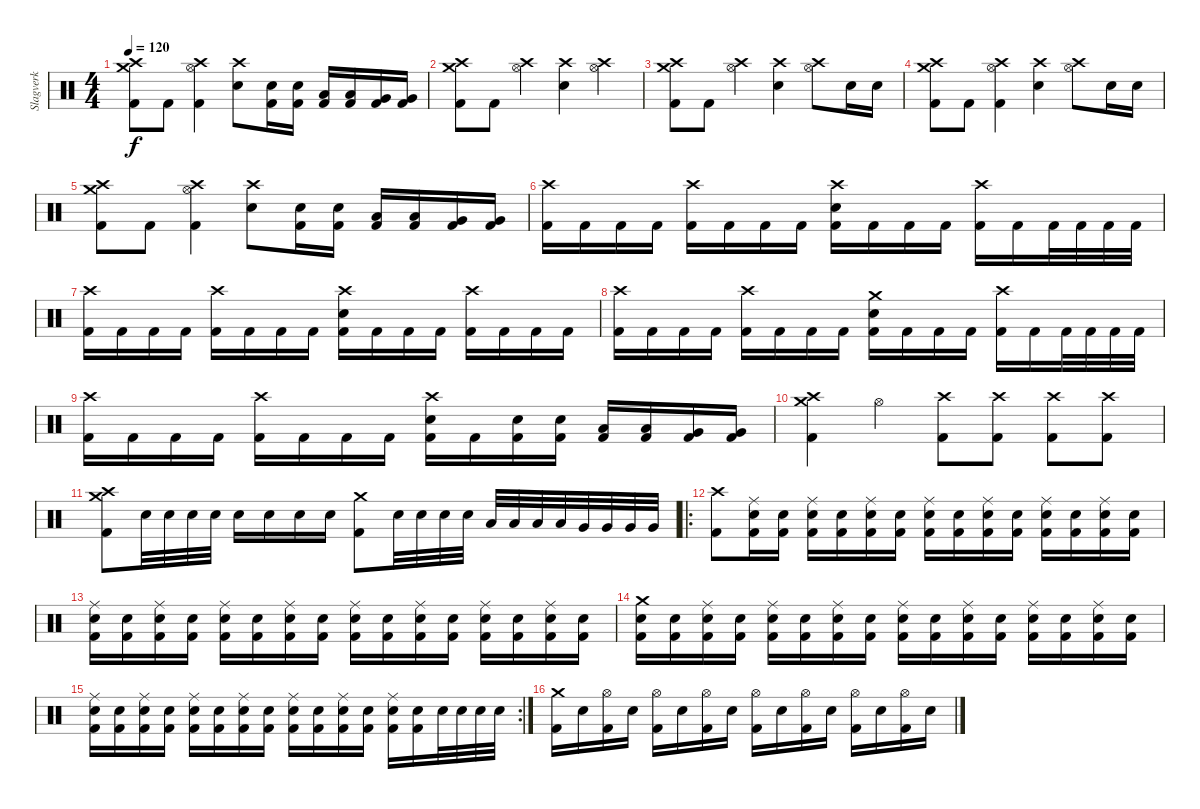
\track ("Slagverk" "Slagverk") {instrument percussion}
\staff {score}
\articulation defaults
\ts (4 4)
\tempo 120
\clef neutral
\ks c
("Crash high (hit)" "Crash medium (hit)" "Kick (hit) 2").8{dy f} "Kick (hit) 2".8 ("Crash high (hit)" "Hi-Hat (open)" "Kick (hit) 2").4 ("Crash high (hit)" "Electric Snare (hit)").8 ("Electric Snare (hit)" "Kick (hit) 2").16 ("Electric Snare (hit)" "Kick (hit) 2").16 ("Low Tom (hit)" "Kick (hit) 2").16 ("Low Tom (hit)" "Kick (hit) 2").16 ("Very Low Tom (hit)" "Kick (hit) 2").16 ("Very Low Tom (hit)" "Kick (hit) 2").16 |
("Crash high (hit)" "Crash medium (hit)" "Kick (hit) 2").8 "Kick (hit) 2".8 ("Crash high (hit)" "Hi-Hat (open)").4 ("Crash high (hit)" "Electric Snare (hit)").4 ("Crash high (hit)" "Hi-Hat (open)").4 |
("Crash high (hit)" "Crash medium (hit)" "Kick (hit) 2").8 "Kick (hit) 2".8 ("Crash high (hit)" "Hi-Hat (open)").4 ("Crash high (hit)" "Electric Snare (hit)").4 ("Crash high (hit)" "Hi-Hat (open)").8 "Electric Snare (hit)".16 "Electric Snare (hit)".16 |
("Crash high (hit)" "Crash medium (hit)" "Kick (hit) 2").8 "Kick (hit) 2".8 ("Crash high (hit)" "Hi-Hat (open)" "Kick (hit) 2").4 ("Crash high (hit)" "Electric Snare (hit)").4 ("Crash high (hit)" "Hi-Hat (open)").8 "Electric Snare (hit)".16 "Electric Snare (hit)".16 |
("Crash high (hit)" "Crash medium (hit)" "Kick (hit) 2").8 "Kick (hit) 2".8 ("Crash high (hit)" "Hi-Hat (open)" "Kick (hit) 2").4 ("Crash high (hit)" "Electric Snare (hit)").8 ("Electric Snare (hit)" "Kick (hit) 2").16 ("Electric Snare (hit)" "Kick (hit) 2").16 ("Low Tom (hit)" "Kick (hit) 2").16 ("Low Tom (hit)" "Kick (hit) 2").16 ("Very Low Tom (hit)" "Kick (hit) 2").16 ("Very Low Tom (hit)" "Kick (hit) 2").16 |
("Crash high (hit)" "Kick (hit) 2").16 "Kick (hit) 2".16 "Kick (hit) 2".16 "Kick (hit) 2".16 ("Crash high (hit)" "Kick (hit) 2").16 "Kick (hit) 2".16 "Kick (hit) 2".16 "Kick (hit) 2".16 ("Crash high (hit)" "Snare (hit) 2" "Kick (hit) 2").16 "Kick (hit) 2".16 "Kick (hit) 2".16 "Kick (hit) 2".16 ("Crash high (hit)" "Kick (hit) 2").16 "Kick (hit) 2".16 "Kick (hit) 2".32 "Kick (hit) 2".32 "Kick (hit) 2".32 "Kick (hit) 2".32 |
("Crash high (hit)" "Kick (hit) 2").16 "Kick (hit) 2".16 "Kick (hit) 2".16 "Kick (hit) 2".16 ("Crash high (hit)" "Kick (hit) 2").16 "Kick (hit) 2".16 "Kick (hit) 2".16 "Kick (hit) 2".16 ("Crash high (hit)" "Snare (hit) 2" "Kick (hit) 2").16 "Kick (hit) 2".16 "Kick (hit) 2".16 "Kick (hit) 2".16 ("Crash high (hit)" "Kick (hit) 2").16 "Kick (hit) 2".16 "Kick (hit) 2".16 "Kick (hit) 2".16 |
("Crash high (hit)" "Kick (hit) 2").16 "Kick (hit) 2".16 "Kick (hit) 2".16 "Kick (hit) 2".16 ("Crash high (hit)" "Kick (hit) 2").16 "Kick (hit) 2".16 "Kick (hit) 2".16 "Kick (hit) 2".16 ("Crash medium (hit)" "Snare (hit) 2" "Kick (hit) 2").16 "Kick (hit) 2".16 "Kick (hit) 2".16 "Kick (hit) 2".16 ("Crash high (hit)" "Kick (hit) 2").16 "Kick (hit) 2".16 "Kick (hit) 2".32 "Kick (hit) 2".32 "Kick (hit) 2".32 "Kick (hit) 2".32 |
("Crash high (hit)" "Kick (hit) 2").16 "Kick (hit) 2".16 "Kick (hit) 2".16 "Kick (hit) 2".16 ("Crash high (hit)" "Kick (hit) 2").16 "Kick (hit) 2".16 "Kick (hit) 2".16 "Kick (hit) 2".16 ("Crash high (hit)" "Electric Snare (hit)" "Kick (hit) 2").16 "Kick (hit) 2".16 ("Electric Snare (hit)" "Kick (hit) 2").16 ("Electric Snare (hit)" "Kick (hit) 2").16 ("Low Tom (hit)" "Kick (hit) 2").16 ("Low Tom (hit)" "Kick (hit) 2").16 ("Very Low Tom (hit)" "Kick (hit) 2").16 ("Very Low Tom (hit)" "Kick (hit) 2").16 |
("Crash medium (hit)" "Crash high (hit)" "Kick (hit) 2").4 "Hi-Hat (open)".4 ("Crash high (hit)" "Kick (hit) 2").8 ("Crash high (hit)" "Kick (hit) 2").8 ("Crash high (hit)" "Kick (hit) 2").8 ("Crash high (hit)" "Kick (hit) 2").8 |
("Crash high (hit)" "Crash medium (hit)" "Kick (hit) 2").8 "Electric Snare (hit)".32 "Electric Snare (hit)".32 "Electric Snare (hit)".32 "Electric Snare (hit)".32 "Electric Snare (hit)".16 "Electric Snare (hit)".16 "Electric Snare (hit)".16 "Electric Snare (hit)".16 ("Crash medium (hit)" "Kick (hit) 2").8 "Electric Snare (hit)".32 "Electric Snare (hit)".32 "Electric Snare (hit)".32 "Electric Snare (hit)".32 "Low Tom (hit)".32 "Low Tom (hit)".32 "Low Tom (hit)".32 "Low Tom (hit)".32 "Very Low Tom (hit)".32 "Very Low Tom (hit)".32 "Very Low Tom (hit)".32 "Very Low Tom (hit)".32 |
\ro
("Crash high (hit)" "Kick (hit) 2").8 ("Ride (middle)" "Electric Snare (hit)" "Kick (hit) 2").16 ("Electric Snare (hit)" "Kick (hit) 2").16 ("Ride (middle)" "Electric Snare (hit)" "Kick (hit) 2").16 ("Electric Snare (hit)" "Kick (hit) 2").16 ("Ride (middle)" "Electric Snare (hit)" "Kick (hit) 2").16 ("Electric Snare (hit)" "Kick (hit) 2").16 ("Ride (middle)" "Electric Snare (hit)" "Kick (hit) 2").16 ("Electric Snare (hit)" "Kick (hit) 2").16 ("Ride (middle)" "Electric Snare (hit)" "Kick (hit) 2").16 ("Electric Snare (hit)" "Kick (hit) 2").16 ("Ride (middle)" "Electric Snare (hit)" "Kick (hit) 2").16 ("Electric Snare (hit)" "Kick (hit) 2").16 ("Ride (middle)" "Electric Snare (hit)" "Kick (hit) 2").16 ("Electric Snare (hit)" "Kick (hit) 2").16 |
("Ride (middle)" "Electric Snare (hit)" "Kick (hit) 2").16 ("Electric Snare (hit)" "Kick (hit) 2").16 ("Ride (middle)" "Electric Snare (hit)" "Kick (hit) 2").16 ("Electric Snare (hit)" "Kick (hit) 2").16 ("Ride (middle)" "Electric Snare (hit)" "Kick (hit) 2").16 ("Electric Snare (hit)" "Kick (hit) 2").16 ("Ride (middle)" "Electric Snare (hit)" "Kick (hit) 2").16 ("Electric Snare (hit)" "Kick (hit) 2").16 ("Ride (middle)" "Electric Snare (hit)" "Kick (hit) 2").16 ("Electric Snare (hit)" "Kick (hit) 2").16 ("Ride (middle)" "Electric Snare (hit)" "Kick (hit) 2").16 ("Electric Snare (hit)" "Kick (hit) 2").16 ("Ride (middle)" "Electric Snare (hit)" "Kick (hit) 2").16 ("Electric Snare (hit)" "Kick (hit) 2").16 ("Ride (middle)" "Electric Snare (hit)" "Kick (hit) 2").16 ("Electric Snare (hit)" "Kick (hit) 2").16 |
("Crash medium (hit)" "Electric Snare (hit)" "Kick (hit) 2").16 ("Electric Snare (hit)" "Kick (hit) 2").16 ("Ride (middle)" "Electric Snare (hit)" "Kick (hit) 2").16 ("Electric Snare (hit)" "Kick (hit) 2").16 ("Ride (middle)" "Electric Snare (hit)" "Kick (hit) 2").16 ("Electric Snare (hit)" "Kick (hit) 2").16 ("Ride (middle)" "Electric Snare (hit)" "Kick (hit) 2").16 ("Electric Snare (hit)" "Kick (hit) 2").16 ("Ride (middle)" "Electric Snare (hit)" "Kick (hit) 2").16 ("Electric Snare (hit)" "Kick (hit) 2").16 ("Ride (middle)" "Electric Snare (hit)" "Kick (hit) 2").16 ("Electric Snare (hit)" "Kick (hit) 2").16 ("Ride (middle)" "Electric Snare (hit)" "Kick (hit) 2").16 ("Electric Snare (hit)" "Kick (hit) 2").16 ("Ride (middle)" "Electric Snare (hit)" "Kick (hit) 2").16 ("Electric Snare (hit)" "Kick (hit) 2").16 |
\rc 2
("Ride (middle)" "Electric Snare (hit)" "Kick (hit) 2").16 ("Electric Snare (hit)" "Kick (hit) 2").16 ("Ride (middle)" "Electric Snare (hit)" "Kick (hit) 2").16 ("Electric Snare (hit)" "Kick (hit) 2").16 ("Ride (middle)" "Electric Snare (hit)" "Kick (hit) 2").16 ("Electric Snare (hit)" "Kick (hit) 2").16 ("Ride (middle)" "Electric Snare (hit)" "Kick (hit) 2").16 ("Electric Snare (hit)" "Kick (hit) 2").16 ("Ride (middle)" "Electric Snare (hit)" "Kick (hit) 2").16 ("Electric Snare (hit)" "Kick (hit) 2").16 ("Ride (middle)" "Electric Snare (hit)" "Kick (hit) 2").16 ("Electric Snare (hit)" "Kick (hit) 2").16 ("Ride (middle)" "Electric Snare (hit)" "Kick (hit) 2").16 ("Electric Snare (hit)" "Kick (hit) 2").16 "Electric Snare (hit)".32 "Electric Snare (hit)".32 "Electric Snare (hit)".32 "Electric Snare (hit)".32 |
("Crash medium (hit)" "Kick (hit) 2").16 "Electric Snare (hit)".16 ("Hi-Hat (open)" "Kick (hit) 2").16 "Electric Snare (hit)".16 ("Hi-Hat (open)" "Kick (hit) 2").16 "Electric Snare (hit)".16 ("Hi-Hat (open)" "Kick (hit) 2").16 "Electric Snare (hit)".16 ("Hi-Hat (open)" "Kick (hit) 2").16 "Electric Snare (hit)".16 ("Hi-Hat (open)" "Kick (hit) 2").16 "Electric Snare (hit)".16 ("Hi-Hat (open)" "Kick (hit) 2").16 "Electric Snare (hit)".16 ("Hi-Hat (open)" "Kick (hit) 2").16 "Electric Snare (hit)".16
